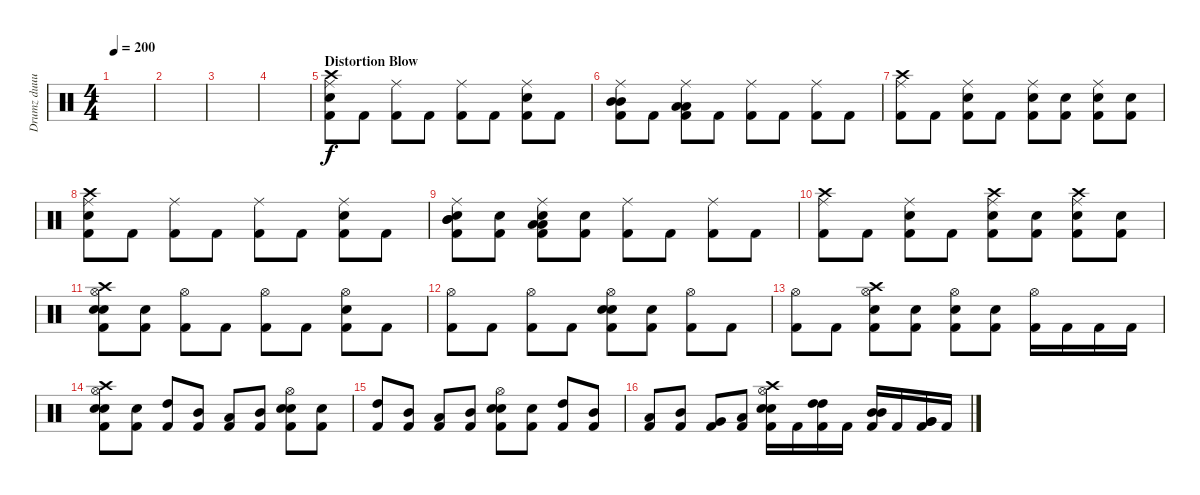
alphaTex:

\track ("Drumz duuuuude" "Drumz duuu") {instrument percussion}
\staff {score}
\articulation defaults
\ts (4 4)
\tempo 200
\clef neutral
\ks c
|
|
|
|
\section ("" "Distortion Blow")
("Crash high (hit)" "Ride (middle)" "Kick (hit) 2" "Snare (hit) 2").8 "Kick (hit) 2".8 ("Ride (middle)" "Kick (hit) 2").8 "Kick (hit) 2".8 ("Ride (middle)" "Kick (hit) 2").8 "Kick (hit) 2".8 ("Ride (middle)" "Kick (hit) 2" "Snare (hit) 2").8 "Kick (hit) 2".8 |
("Ride (middle)" "Kick (hit) 2" "Mid Tom (hit)" "Mid Tom (hit)").8 "Kick (hit) 2".8 ("Ride (middle)" "Kick (hit) 2" "Low Tom (hit)" "Low Tom (hit)").8 "Kick (hit) 2".8 ("Ride (middle)" "Kick (hit) 2").8 "Kick (hit) 2".8 ("Ride (middle)" "Kick (hit) 2").8 "Kick (hit) 2".8 |
("Crash high (hit)" "Ride (middle)" "Kick (hit) 2").8 "Kick (hit) 2".8 ("Ride (middle)" "Kick (hit) 2" "Snare (hit) 2").8 "Kick (hit) 2".8 ("Ride (middle)" "Kick (hit) 2" "Electric Snare (hit)").8 ("Kick (hit) 2" "Electric Snare (hit)").8 ("Ride (middle)" "Kick (hit) 2" "Electric Snare (hit)").8 ("Kick (hit) 2" "Electric Snare (hit)").8 |
("Crash high (hit)" "Ride (middle)" "Kick (hit) 2" "Snare (hit) 2").8 "Kick (hit) 2".8 ("Ride (middle)" "Kick (hit) 2").8 "Kick (hit) 2".8 ("Ride (middle)" "Kick (hit) 2").8 "Kick (hit) 2".8 ("Ride (middle)" "Kick (hit) 2" "Snare (hit) 2").8 "Kick (hit) 2".8 |
("Ride (middle)" "Kick (hit) 2" "Electric Snare (hit)" "Mid Tom (hit)" "Mid Tom (hit)").8 ("Kick (hit) 2" "Electric Snare (hit)").8 ("Ride (middle)" "Kick (hit) 2" "Electric Snare (hit)" "Low Tom (hit)" "Low Tom (hit)").8 ("Kick (hit) 2" "Electric Snare (hit)").8 ("Ride (middle)" "Kick (hit) 2").8 "Kick (hit) 2".8 ("Ride (middle)" "Kick (hit) 2").8 "Kick (hit) 2".8 |
("Crash high (hit)" "Ride (middle)" "Kick (hit) 2").8 "Kick (hit) 2".8 ("Ride (middle)" "Kick (hit) 2" "Snare (hit) 2").8 "Kick (hit) 2".8 ("Crash high (hit)" "Ride (middle)" "Kick (hit) 2" "Snare (hit) 2").8 ("Kick (hit) 2" "Snare (hit) 2").8 ("Crash high (hit)" "Ride (middle)" "Kick (hit) 2" "Snare (hit) 2").8 ("Kick (hit) 2" "Snare (hit) 2").8 |
("Crash high (hit)" "Hi-Hat (open)" "Kick (hit) 2" "Snare (hit) 2" "Electric Snare (hit)").8 ("Kick (hit) 2" "Electric Snare (hit)").8 ("Hi-Hat (open)" "Kick (hit) 2").8 "Kick (hit) 2".8 ("Hi-Hat (open)" "Kick (hit) 2").8 "Kick (hit) 2".8 ("Hi-Hat (open)" "Kick (hit) 2" "Snare (hit) 2").8 "Kick (hit) 2".8 |
("Hi-Hat (open)" "Kick (hit) 2").8 "Kick (hit) 2".8 ("Hi-Hat (open)" "Kick (hit) 2").8 "Kick (hit) 2".8 ("Hi-Hat (open)" "Kick (hit) 2" "Snare (hit) 2" "Electric Snare (hit)").8 ("Kick (hit) 2" "Electric Snare (hit)").8 ("Hi-Hat (open)" "Kick (hit) 2").8 "Kick (hit) 2".8 |
("Hi-Hat (open)" "Kick (hit) 2").8 "Kick (hit) 2".8 ("Crash high (hit)" "Hi-Hat (open)" "Kick (hit) 2" "Electric Snare (hit)").8 ("Kick (hit) 2" "Electric Snare (hit)").8 ("Hi-Hat (open)" "Kick (hit) 2" "Electric Snare (hit)").8 ("Kick (hit) 2" "Electric Snare (hit)").8 ("Hi-Hat (open)" "Kick (hit) 2").16 "Kick (hit) 2".16 "Kick (hit) 2".16 "Kick (hit) 2".16 |
("Crash high (hit)" "Hi-Hat (open)" "Kick (hit) 2" "Snare (hit) 2" "Electric Snare (hit)").8 ("Kick (hit) 2" "Electric Snare (hit)").8 ("Kick (hit) 2" "High Tom (hit)").8 ("Kick (hit) 2" "Mid Tom (hit)").8 ("Kick (hit) 2" "Low Tom (hit)").8 ("Kick (hit) 2" "Mid Tom (hit)").8 ("Hi-Hat (open)" "Kick (hit) 2" "Snare (hit) 2" "Electric Snare (hit)").8 ("Kick (hit) 2" "Electric Snare (hit)").8 |
("Kick (hit) 2" "High Tom (hit)").8 ("Kick (hit) 2" "Mid Tom (hit)").8 ("Kick (hit) 2" "Low Tom (hit)").8 ("Kick (hit) 2" "Mid Tom (hit)").8 ("Hi-Hat (open)" "Kick (hit) 2" "Snare (hit) 2" "Electric Snare (hit)").8 ("Kick (hit) 2" "Electric Snare (hit)").8 ("Kick (hit) 2" "High Tom (hit)").8 ("Kick (hit) 2" "Mid Tom (hit)").8 |
("Kick (hit) 2" "Low Tom (hit)").8 ("Kick (hit) 2" "Mid Tom (hit)").8 ("Kick (hit) 2" "Very Low Tom (hit)").8 ("Kick (hit) 2" "Low Floor Tom (hit)").8 ("Crash high (hit)" "Hi-Hat (open)" "Kick (hit) 2" "Snare (hit) 2" "Electric Snare (hit)").16 "Kick (hit) 2".16 ("Kick (hit) 2" "High Tom (hit)" "High Tom (hit)").16 "Kick (hit) 2".16 ("Kick (hit) 2" "Mid Tom (hit)" "Mid Tom (hit)").16 "Kick (hit) 2".16 ("Kick (hit) 2" "Very Low Tom (hit)" "Very Low Tom (hit)").16 "Kick (hit) 2".16
